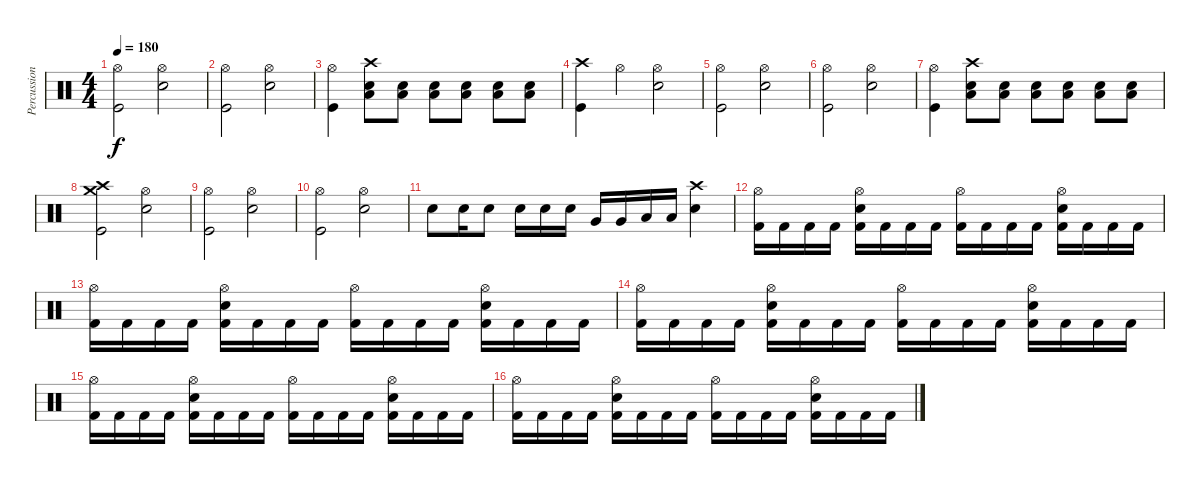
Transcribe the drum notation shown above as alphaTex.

\track ("Percussion" "Percussion") {instrument percussion}
\staff {score}
\articulation defaults
\ts (4 4)
\tempo 180
\clef neutral
\ks c
("Hi-Hat (open)" "Kick (hit)").2{dy f} ("Hi-Hat (open)" "Snare (hit) 2").2 |
("Hi-Hat (open)" "Kick (hit)").2 ("Hi-Hat (open)" "Snare (hit) 2").2 |
("Hi-Hat (open)" "Kick (hit)").4 ("Crash high (hit)" "Snare (hit) 2" "Low Floor Tom (hit)").8 ("Snare (hit) 2" "Low Floor Tom (hit)").8 ("Snare (hit) 2" "Low Floor Tom (hit)").8 ("Snare (hit) 2" "Low Floor Tom (hit)").8 ("Snare (hit) 2" "Low Floor Tom (hit)").8 ("Snare (hit) 2" "Low Floor Tom (hit)").8 |
("Crash high (hit)" "Kick (hit)").4 "Hi-Hat (open)".4 ("Hi-Hat (open)" "Snare (hit) 2").2 |
("Hi-Hat (open)" "Kick (hit)").2 ("Hi-Hat (open)" "Snare (hit) 2").2 |
("Hi-Hat (open)" "Kick (hit)").2 ("Hi-Hat (open)" "Snare (hit) 2").2 |
("Hi-Hat (open)" "Kick (hit)").4 ("Crash high (hit)" "Snare (hit) 2" "Low Floor Tom (hit)").8 ("Snare (hit) 2" "Low Floor Tom (hit)").8 ("Snare (hit) 2" "Low Floor Tom (hit)").8 ("Snare (hit) 2" "Low Floor Tom (hit)").8 ("Snare (hit) 2" "Low Floor Tom (hit)").8 ("Snare (hit) 2" "Low Floor Tom (hit)").8 |
("Crash medium (hit)" "Crash high (hit)" "Kick (hit)").2 ("Hi-Hat (open)" "Snare (hit) 2").2 |
("Hi-Hat (open)" "Kick (hit)").2 ("Hi-Hat (open)" "Snare (hit) 2").2 |
("Hi-Hat (open)" "Kick (hit)").2 ("Hi-Hat (open)" "Snare (hit) 2").2 |
"Electric Snare (hit)".8 "Electric Snare (hit)".16 "Electric Snare (hit)".8 "Electric Snare (hit)".16 "Electric Snare (hit)".16 "Electric Snare (hit)".16 "Very Low Tom (hit)".16 "Very Low Tom (hit)".16 "Low Floor Tom (hit)".16 "Low Floor Tom (hit)".16 ("Crash high (hit)" "Electric Snare (hit)").4 |
("Hi-Hat (open)" "Kick (hit) 2").16 "Kick (hit) 2".16 "Kick (hit) 2".16 "Kick (hit) 2".16 ("Hi-Hat (open)" "Electric Snare (hit)" "Kick (hit) 2").16 "Kick (hit) 2".16 "Kick (hit) 2".16 "Kick (hit) 2".16 ("Hi-Hat (open)" "Kick (hit) 2").16 "Kick (hit) 2".16 "Kick (hit) 2".16 "Kick (hit) 2".16 ("Hi-Hat (open)" "Electric Snare (hit)" "Kick (hit) 2").16 "Kick (hit) 2".16 "Kick (hit) 2".16 "Kick (hit) 2".16 |
("Hi-Hat (open)" "Kick (hit) 2").16 "Kick (hit) 2".16 "Kick (hit) 2".16 "Kick (hit) 2".16 ("Hi-Hat (open)" "Electric Snare (hit)" "Kick (hit) 2").16 "Kick (hit) 2".16 "Kick (hit) 2".16 "Kick (hit) 2".16 ("Hi-Hat (open)" "Kick (hit) 2").16 "Kick (hit) 2".16 "Kick (hit) 2".16 "Kick (hit) 2".16 ("Hi-Hat (open)" "Electric Snare (hit)" "Kick (hit) 2").16 "Kick (hit) 2".16 "Kick (hit) 2".16 "Kick (hit) 2".16 |
("Hi-Hat (open)" "Kick (hit) 2").16 "Kick (hit) 2".16 "Kick (hit) 2".16 "Kick (hit) 2".16 ("Hi-Hat (open)" "Electric Snare (hit)" "Kick (hit) 2").16 "Kick (hit) 2".16 "Kick (hit) 2".16 "Kick (hit) 2".16 ("Hi-Hat (open)" "Kick (hit) 2").16 "Kick (hit) 2".16 "Kick (hit) 2".16 "Kick (hit) 2".16 ("Hi-Hat (open)" "Electric Snare (hit)" "Kick (hit) 2").16 "Kick (hit) 2".16 "Kick (hit) 2".16 "Kick (hit) 2".16 |
("Hi-Hat (open)" "Kick (hit) 2").16 "Kick (hit) 2".16 "Kick (hit) 2".16 "Kick (hit) 2".16 ("Hi-Hat (open)" "Electric Snare (hit)" "Kick (hit) 2").16 "Kick (hit) 2".16 "Kick (hit) 2".16 "Kick (hit) 2".16 ("Hi-Hat (open)" "Kick (hit) 2").16 "Kick (hit) 2".16 "Kick (hit) 2".16 "Kick (hit) 2".16 ("Hi-Hat (open)" "Electric Snare (hit)" "Kick (hit) 2").16 "Kick (hit) 2".16 "Kick (hit) 2".16 "Kick (hit) 2".16 |
("Hi-Hat (open)" "Kick (hit) 2").16 "Kick (hit) 2".16 "Kick (hit) 2".16 "Kick (hit) 2".16 ("Hi-Hat (open)" "Electric Snare (hit)" "Kick (hit) 2").16 "Kick (hit) 2".16 "Kick (hit) 2".16 "Kick (hit) 2".16 ("Hi-Hat (open)" "Kick (hit) 2").16 "Kick (hit) 2".16 "Kick (hit) 2".16 "Kick (hit) 2".16 ("Hi-Hat (open)" "Electric Snare (hit)" "Kick (hit) 2").16 "Kick (hit) 2".16 "Kick (hit) 2".16 "Kick (hit) 2".16
